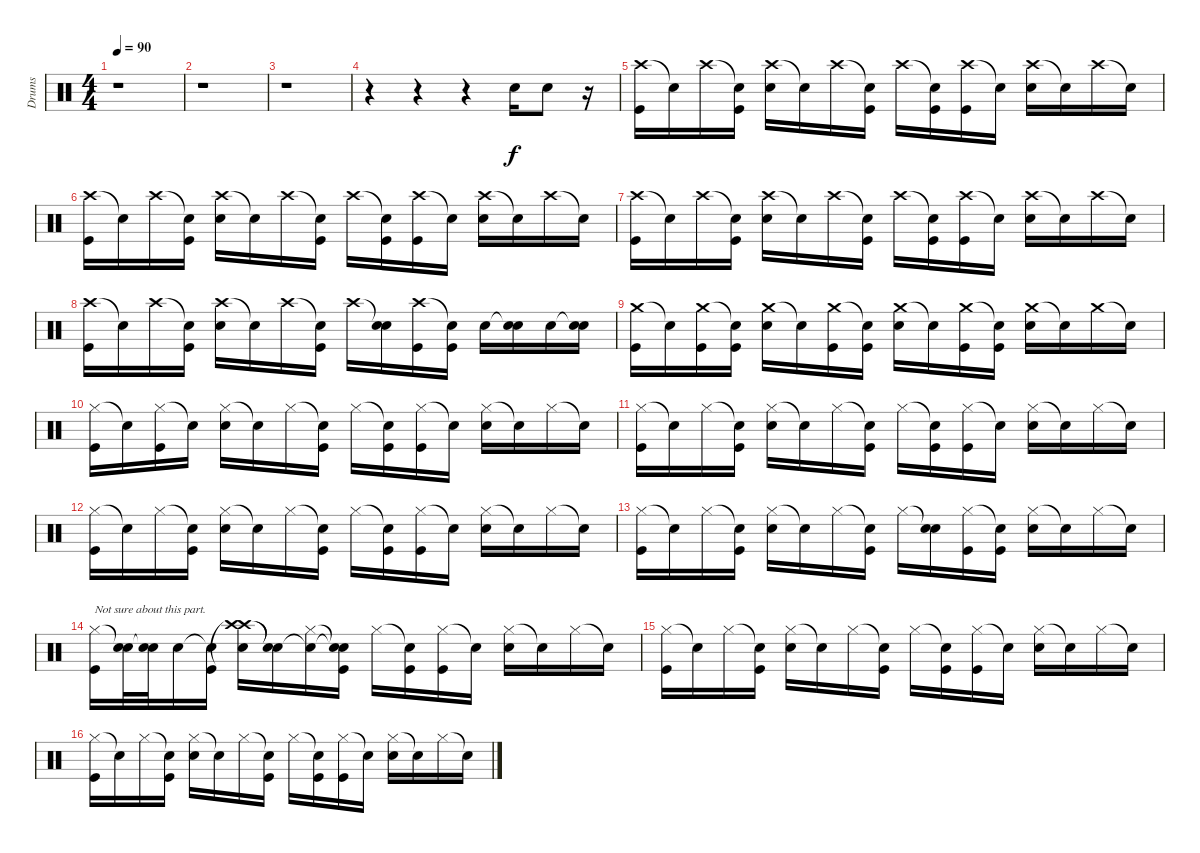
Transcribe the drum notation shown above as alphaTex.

\track ("Drums" "Drums") {instrument percussion}
\staff {score}
\articulation defaults
\ts (4 4)
\tempo 90
\clef neutral
\ks c
r.1{dy f} |
r.1 |
r.1 |
r.4 r.4 r.4 "Electric Snare (hit)".16 "Electric Snare (hit)".8 r.16 |
("Crash high (hit)" "Kick (hit)").16 "Snare (hit)"{t}.16 "Crash high (hit)".16 ("Snare (hit)"{t} "Kick (hit)").16 ("Crash high (hit)" "Electric Snare (hit)").16 "Snare (hit)"{t}.16 "Crash high (hit)".16 ("Snare (hit)"{t} "Kick (hit)").16 "Crash high (hit)".16 ("Snare (hit)"{t} "Kick (hit)").16 ("Crash high (hit)" "Kick (hit)").16 "Snare (hit)"{t}.16 ("Crash high (hit)" "Electric Snare (hit)").16 "Snare (hit)"{t}.16 "Crash high (hit)".16 "Snare (hit)"{t}.16 |
("Crash high (hit)" "Kick (hit)").16 "Snare (hit)"{t}.16 "Crash high (hit)".16 ("Snare (hit)"{t} "Kick (hit)").16 ("Crash high (hit)" "Electric Snare (hit)").16 "Snare (hit)"{t}.16 "Crash high (hit)".16 ("Snare (hit)"{t} "Kick (hit)").16 "Crash high (hit)".16 ("Snare (hit)"{t} "Kick (hit)").16 ("Crash high (hit)" "Kick (hit)").16 "Snare (hit)"{t}.16 ("Crash high (hit)" "Electric Snare (hit)").16 "Snare (hit)"{t}.16 "Crash high (hit)".16 "Snare (hit)"{t}.16 |
("Crash high (hit)" "Kick (hit)").16 "Snare (hit)"{t}.16 "Crash high (hit)".16 ("Snare (hit)"{t} "Kick (hit)").16 ("Crash high (hit)" "Electric Snare (hit)").16 "Snare (hit)"{t}.16 "Crash high (hit)".16 ("Snare (hit)"{t} "Kick (hit)").16 "Crash high (hit)".16 ("Snare (hit)"{t} "Kick (hit)").16 ("Crash high (hit)" "Kick (hit)").16 "Snare (hit)"{t}.16 ("Crash high (hit)" "Electric Snare (hit)").16 "Snare (hit)"{t}.16 "Crash high (hit)".16 "Snare (hit)"{t}.16 |
("Crash high (hit)" "Kick (hit)").16 "Snare (hit)"{t}.16 "Crash high (hit)".16 ("Snare (hit)"{t} "Kick (hit)").16 ("Crash high (hit)" "Electric Snare (hit)").16 "Snare (hit)"{t}.16 "Crash high (hit)".16 ("Snare (hit)"{t} "Kick (hit)").16 "Crash high (hit)".16 ("Snare (hit)"{t} "Electric Snare (hit)").16 ("Crash high (hit)" "Kick (hit)").16 ("Snare (hit)"{t} "Kick (hit)").16 "Electric Snare (hit)".16 ("Snare (hit)"{t} "Electric Snare (hit)").16 "Electric Snare (hit)".16 ("Snare (hit)"{t} "Electric Snare (hit)").16 |
("Crash medium (hit)" "Kick (hit)").16 "Snare (hit)"{t}.16 ("Crash medium (hit)" "Kick (hit)").16 ("Snare (hit)"{t} "Kick (hit)").16 ("Crash medium (hit)" "Electric Snare (hit)").16 "Snare (hit)"{t}.16 ("Crash medium (hit)" "Kick (hit)").16 ("Snare (hit)"{t} "Kick (hit)").16 ("Crash medium (hit)" "Electric Snare (hit)").16 "Snare (hit)"{t}.16 ("Crash medium (hit)" "Kick (hit)").16 ("Snare (hit)"{t} "Kick (hit)").16 ("Crash medium (hit)" "Electric Snare (hit)").16 "Snare (hit)"{t}.16 "Crash medium (hit)".16 "Snare (hit)"{t}.16 |
("Hi-Hat (closed)" "Kick (hit)").16 "Snare (hit)"{t}.16 ("Hi-Hat (closed)" "Kick (hit)").16 "Snare (hit)"{t}.16 ("Hi-Hat (closed)" "Electric Snare (hit)").16 "Snare (hit)"{t}.16 "Hi-Hat (closed)".16 ("Snare (hit)"{t} "Kick (hit)").16 "Hi-Hat (closed)".16 ("Snare (hit)"{t} "Kick (hit)").16 ("Hi-Hat (closed)" "Kick (hit)").16 "Snare (hit)"{t}.16 ("Hi-Hat (closed)" "Electric Snare (hit)").16 "Snare (hit)"{t}.16 "Hi-Hat (closed)".16 "Snare (hit)"{t}.16 |
("Hi-Hat (closed)" "Kick (hit)").16 "Snare (hit)"{t}.16 "Hi-Hat (closed)".16 ("Snare (hit)"{t} "Kick (hit)").16 ("Hi-Hat (closed)" "Electric Snare (hit)").16 "Snare (hit)"{t}.16 "Hi-Hat (closed)".16 ("Snare (hit)"{t} "Kick (hit)").16 "Hi-Hat (closed)".16 ("Snare (hit)"{t} "Kick (hit)").16 ("Hi-Hat (closed)" "Kick (hit)").16 "Snare (hit)"{t}.16 ("Hi-Hat (closed)" "Electric Snare (hit)").16 "Snare (hit)"{t}.16 "Hi-Hat (closed)".16 "Snare (hit)"{t}.16 |
("Hi-Hat (closed)" "Kick (hit)").16 "Snare (hit)"{t}.16 "Hi-Hat (closed)".16 ("Snare (hit)"{t} "Kick (hit)").16 ("Hi-Hat (closed)" "Electric Snare (hit)").16 "Snare (hit)"{t}.16 "Hi-Hat (closed)".16 ("Snare (hit)"{t} "Kick (hit)").16 "Hi-Hat (closed)".16 ("Snare (hit)"{t} "Kick (hit)").16 ("Hi-Hat (closed)" "Kick (hit)").16 "Snare (hit)"{t}.16 ("Hi-Hat (closed)" "Electric Snare (hit)").16 "Snare (hit)"{t}.16 "Hi-Hat (closed)".16 "Snare (hit)"{t}.16 |
("Hi-Hat (closed)" "Kick (hit)").16 "Snare (hit)"{t}.16 "Hi-Hat (closed)".16 ("Snare (hit)"{t} "Kick (hit)").16 ("Hi-Hat (closed)" "Electric Snare (hit)").16 "Snare (hit)"{t}.16 "Hi-Hat (closed)".16 ("Snare (hit)"{t} "Kick (hit)").16 "Hi-Hat (closed)".16 ("Snare (hit)"{t} "Electric Snare (hit)").16 ("Hi-Hat (closed)" "Kick (hit)").16 ("Snare (hit)"{t} "Kick (hit)").16 ("Hi-Hat (closed)" "Electric Snare (hit)").16 "Snare (hit)"{t}.16 "Hi-Hat (closed)".16 "Snare (hit)"{t}.16 |
("Hi-Hat (closed)" "Kick (hit)").16{txt "Not sure about this part."} ("Snare (hit)"{t} "Electric Snare (hit)").32 ("Snare (hit)"{t} "Electric Snare (hit)").32 "Electric Snare (hit)".16 ("Snare (hit)"{t} "Kick (hit)").16 ("Crash high (hit)" "Crash high (hit)"{t} "Electric Snare (hit)").16 ("Snare (hit)"{t} "Snare (hit)"{t}).16 ("Snare (hit)"{t} "Hi-Hat (closed)").16 ("Snare (hit)"{t} "Snare (hit)"{t} "Kick (hit)").16 "Hi-Hat (closed)".16 ("Snare (hit)"{t} "Kick (hit)").16 ("Hi-Hat (closed)" "Kick (hit)").16 "Snare (hit)"{t}.16 ("Hi-Hat (closed)" "Electric Snare (hit)").16 "Snare (hit)"{t}.16 "Hi-Hat (closed)".16 "Snare (hit)"{t}.16 |
("Hi-Hat (closed)" "Kick (hit)").16 "Snare (hit)"{t}.16 "Hi-Hat (closed)".16 ("Snare (hit)"{t} "Kick (hit)").16 ("Hi-Hat (closed)" "Electric Snare (hit)").16 "Snare (hit)"{t}.16 "Hi-Hat (closed)".16 ("Snare (hit)"{t} "Kick (hit)").16 "Hi-Hat (closed)".16 ("Snare (hit)"{t} "Kick (hit)").16 ("Hi-Hat (closed)" "Kick (hit)").16 "Snare (hit)"{t}.16 ("Hi-Hat (closed)" "Electric Snare (hit)").16 "Snare (hit)"{t}.16 "Hi-Hat (closed)".16 "Snare (hit)"{t}.16 |
("Hi-Hat (closed)" "Kick (hit)").16 "Snare (hit)"{t}.16 "Hi-Hat (closed)".16 ("Snare (hit)"{t} "Kick (hit)").16 ("Hi-Hat (closed)" "Electric Snare (hit)").16 "Snare (hit)"{t}.16 "Hi-Hat (closed)".16 ("Snare (hit)"{t} "Kick (hit)").16 "Hi-Hat (closed)".16 ("Snare (hit)"{t} "Kick (hit)").16 ("Hi-Hat (closed)" "Kick (hit)").16 "Snare (hit)"{t}.16 ("Hi-Hat (closed)" "Electric Snare (hit)").16 "Snare (hit)"{t}.16 "Hi-Hat (closed)".16 "Snare (hit)"{t}.16
